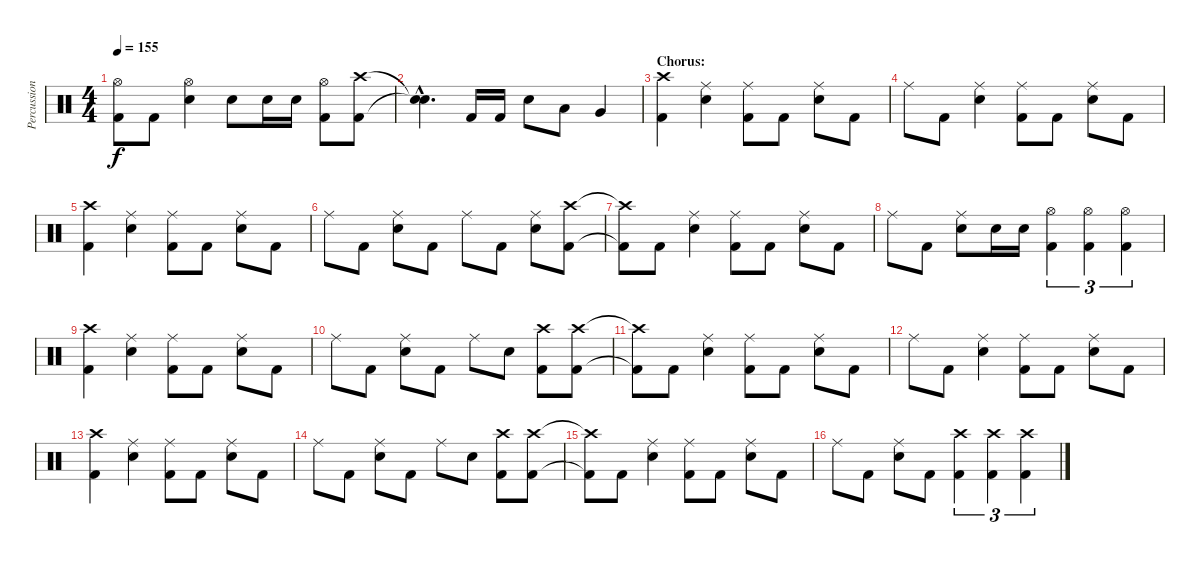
\track ("Percussion" "Percussion") {instrument percussion}
\staff {score}
\articulation defaults
\ts (4 4)
\tempo 155
\clef neutral
\ks c
("Hi-Hat (open)"{t} "Kick (hit) 2"{t}).8{dy f} "Kick (hit) 2".8 ("Hi-Hat (open)" "Electric Snare (hit)").4 "Electric Snare (hit)".8 "Electric Snare (hit)".16 "Electric Snare (hit)".16 ("Hi-Hat (open)" "Kick (hit) 2").8 ("Crash high (hit)" "Kick (hit) 2").8 |
("Snare (hit)"{hac t} "Snare (hit)"{hac t}).4{d} "Kick (hit) 2".16 "Kick (hit) 2".16 "Electric Snare (hit)".8 "Low Tom (hit)".8 "Very Low Tom (hit)".4 |
\section ("" "Chorus:")
("Crash high (hit)" "Kick (hit) 2").4 ("Ride (middle)" "Electric Snare (hit)").4 ("Ride (middle)" "Kick (hit) 2").8 "Kick (hit) 2".8 ("Ride (middle)" "Electric Snare (hit)").8 "Kick (hit) 2".8 |
"Ride (middle)".8 "Kick (hit) 2".8 ("Ride (middle)" "Electric Snare (hit)").4 ("Ride (middle)" "Kick (hit) 2").8 "Kick (hit) 2".8 ("Ride (middle)" "Electric Snare (hit)").8 "Kick (hit) 2".8 |
("Crash high (hit)" "Kick (hit) 2").4 ("Ride (middle)" "Electric Snare (hit)").4 ("Ride (middle)" "Kick (hit) 2").8 "Kick (hit) 2".8 ("Ride (middle)" "Electric Snare (hit)").8 "Kick (hit) 2".8 |
"Ride (middle)".8 "Kick (hit) 2".8 ("Ride (middle)" "Electric Snare (hit)").8 "Kick (hit) 2".8 "Ride (middle)".8 "Kick (hit) 2".8 ("Ride (middle)" "Electric Snare (hit)").8 ("Crash high (hit)" "Kick (hit) 2").8 |
("Crash high (hit)"{t} "Kick (hit) 2"{t}).8 "Kick (hit) 2".8 ("Ride (middle)" "Electric Snare (hit)").4 ("Ride (middle)" "Kick (hit) 2").8 "Kick (hit) 2".8 ("Ride (middle)" "Electric Snare (hit)").8 "Kick (hit) 2".8 |
"Ride (middle)".8 "Kick (hit) 2".8 ("Ride (middle)" "Electric Snare (hit)").8 "Electric Snare (hit)".16 "Electric Snare (hit)".16 ("Hi-Hat (open)" "Kick (hit) 2").4{tu (3 2)} ("Hi-Hat (open)" "Kick (hit) 2").4{tu (3 2)} ("Hi-Hat (open)" "Kick (hit) 2").4{tu (3 2)} |
("Crash high (hit)" "Kick (hit) 2").4 ("Ride (middle)" "Electric Snare (hit)").4 ("Ride (middle)" "Kick (hit) 2").8 "Kick (hit) 2".8 ("Ride (middle)" "Electric Snare (hit)").8 "Kick (hit) 2".8 |
"Ride (middle)".8 "Kick (hit) 2".8 ("Ride (middle)" "Electric Snare (hit)").8 "Kick (hit) 2".8 "Ride (middle)".8 "Electric Snare (hit)".8 ("Crash high (hit)" "Kick (hit) 2").8 ("Crash high (hit)" "Kick (hit) 2").8 |
("Crash high (hit)"{t} "Kick (hit) 2"{t}).8 "Kick (hit) 2".8 ("Ride (middle)" "Electric Snare (hit)").4 ("Ride (middle)" "Kick (hit) 2").8 "Kick (hit) 2".8 ("Ride (middle)" "Electric Snare (hit)").8 "Kick (hit) 2".8 |
"Ride (middle)".8 "Kick (hit) 2".8 ("Ride (middle)" "Electric Snare (hit)").4 ("Ride (middle)" "Kick (hit) 2").8 "Kick (hit) 2".8 ("Ride (middle)" "Electric Snare (hit)").8 "Kick (hit) 2".8 |
("Crash high (hit)" "Kick (hit) 2").4 ("Ride (middle)" "Electric Snare (hit)").4 ("Ride (middle)" "Kick (hit) 2").8 "Kick (hit) 2".8 ("Ride (middle)" "Electric Snare (hit)").8 "Kick (hit) 2".8 |
"Ride (middle)".8 "Kick (hit) 2".8 ("Ride (middle)" "Electric Snare (hit)").8 "Kick (hit) 2".8 "Ride (middle)".8 "Electric Snare (hit)".8 ("Crash high (hit)" "Kick (hit) 2").8 ("Crash high (hit)" "Kick (hit) 2").8 |
("Crash high (hit)"{t} "Kick (hit) 2"{t}).8 "Kick (hit) 2".8 ("Ride (middle)" "Electric Snare (hit)").4 ("Ride (middle)" "Kick (hit) 2").8 "Kick (hit) 2".8 ("Ride (middle)" "Electric Snare (hit)").8 "Kick (hit) 2".8 |
"Ride (middle)".8 "Kick (hit) 2".8 ("Ride (middle)" "Electric Snare (hit)").8 "Kick (hit) 2".8 ("Crash high (hit)" "Kick (hit) 2").4{tu (3 2)} ("Crash high (hit)" "Kick (hit) 2").4{tu (3 2)} ("Crash high (hit)" "Kick (hit) 2").4{tu (3 2)}
